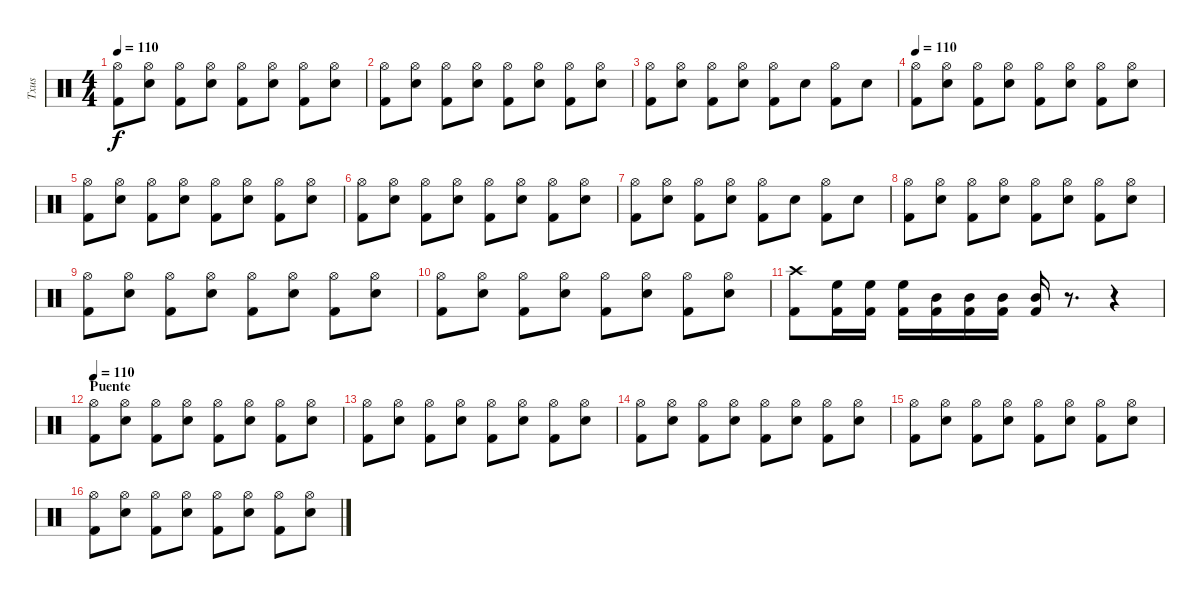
\track ("Txus" "Txus") {instrument percussion}
\staff {score}
\articulation defaults
\ts (4 4)
\tempo 110
\clef neutral
\ks c
("Hi-Hat (open)" "Kick (hit) 2").8{dy f} ("Hi-Hat (open)" "Snare (hit) 2").8 ("Hi-Hat (open)" "Kick (hit) 2").8 ("Hi-Hat (open)" "Snare (hit) 2").8 ("Hi-Hat (open)" "Kick (hit) 2").8 ("Hi-Hat (open)" "Snare (hit) 2").8 ("Hi-Hat (open)" "Kick (hit) 2").8 ("Hi-Hat (open)" "Snare (hit) 2").8 |
("Hi-Hat (open)" "Kick (hit) 2").8 ("Hi-Hat (open)" "Snare (hit) 2").8 ("Hi-Hat (open)" "Kick (hit) 2").8 ("Hi-Hat (open)" "Snare (hit) 2").8 ("Hi-Hat (open)" "Kick (hit) 2").8 ("Hi-Hat (open)" "Snare (hit) 2").8 ("Hi-Hat (open)" "Kick (hit) 2").8 ("Hi-Hat (open)" "Snare (hit) 2").8 |
("Hi-Hat (open)" "Kick (hit) 2").8 ("Hi-Hat (open)" "Snare (hit) 2").8 ("Hi-Hat (open)" "Kick (hit) 2").8 ("Hi-Hat (open)" "Snare (hit) 2").8 ("Hi-Hat (open)" "Kick (hit) 2").8 "Snare (hit) 2".8 ("Hi-Hat (open)" "Kick (hit) 2").8 "Snare (hit) 2".8 |
\tempo 110
("Hi-Hat (open)" "Kick (hit) 2").8 ("Hi-Hat (open)" "Snare (hit) 2").8 ("Hi-Hat (open)" "Kick (hit) 2").8 ("Hi-Hat (open)" "Snare (hit) 2").8 ("Hi-Hat (open)" "Kick (hit) 2").8 ("Hi-Hat (open)" "Snare (hit) 2").8 ("Hi-Hat (open)" "Kick (hit) 2").8 ("Hi-Hat (open)" "Snare (hit) 2").8 |
("Hi-Hat (open)" "Kick (hit) 2").8 ("Hi-Hat (open)" "Snare (hit) 2").8 ("Hi-Hat (open)" "Kick (hit) 2").8 ("Hi-Hat (open)" "Snare (hit) 2").8 ("Hi-Hat (open)" "Kick (hit) 2").8 ("Hi-Hat (open)" "Snare (hit) 2").8 ("Hi-Hat (open)" "Kick (hit) 2").8 ("Hi-Hat (open)" "Snare (hit) 2").8 |
("Hi-Hat (open)" "Kick (hit) 2").8 ("Hi-Hat (open)" "Snare (hit) 2").8 ("Hi-Hat (open)" "Kick (hit) 2").8 ("Hi-Hat (open)" "Snare (hit) 2").8 ("Hi-Hat (open)" "Kick (hit) 2").8 ("Hi-Hat (open)" "Snare (hit) 2").8 ("Hi-Hat (open)" "Kick (hit) 2").8 ("Hi-Hat (open)" "Snare (hit) 2").8 |
("Hi-Hat (open)" "Kick (hit) 2").8 ("Hi-Hat (open)" "Snare (hit) 2").8 ("Hi-Hat (open)" "Kick (hit) 2").8 ("Hi-Hat (open)" "Snare (hit) 2").8 ("Hi-Hat (open)" "Kick (hit) 2").8 "Snare (hit) 2".8 ("Hi-Hat (open)" "Kick (hit) 2").8 "Snare (hit) 2".8 |
("Hi-Hat (open)" "Kick (hit) 2").8 ("Hi-Hat (open)" "Snare (hit) 2").8 ("Hi-Hat (open)" "Kick (hit) 2").8 ("Hi-Hat (open)" "Snare (hit) 2").8 ("Hi-Hat (open)" "Kick (hit) 2").8 ("Hi-Hat (open)" "Snare (hit) 2").8 ("Hi-Hat (open)" "Kick (hit) 2").8 ("Hi-Hat (open)" "Snare (hit) 2").8 |
("Hi-Hat (open)" "Kick (hit) 2").8 ("Hi-Hat (open)" "Snare (hit) 2").8 ("Hi-Hat (open)" "Kick (hit) 2").8 ("Hi-Hat (open)" "Snare (hit) 2").8 ("Hi-Hat (open)" "Kick (hit) 2").8 ("Hi-Hat (open)" "Snare (hit) 2").8 ("Hi-Hat (open)" "Kick (hit) 2").8 ("Hi-Hat (open)" "Snare (hit) 2").8 |
("Hi-Hat (open)" "Kick (hit) 2").8 ("Hi-Hat (open)" "Snare (hit) 2").8 ("Hi-Hat (open)" "Kick (hit) 2").8 ("Hi-Hat (open)" "Snare (hit) 2").8 ("Hi-Hat (open)" "Kick (hit) 2").8 ("Hi-Hat (open)" "Snare (hit) 2").8 ("Hi-Hat (open)" "Kick (hit) 2").8 ("Hi-Hat (open)" "Snare (hit) 2").8 |
("Kick (hit) 2" "Crash high (hit)").8 ("High Floor Tom (hit)" "Kick (hit) 2").16 ("High Floor Tom (hit)" "Kick (hit) 2").16 ("High Floor Tom (hit)" "Kick (hit) 2").16 ("Mid Tom (hit)" "Kick (hit) 2").16 ("Mid Tom (hit)" "Kick (hit) 2").16 ("Mid Tom (hit)" "Kick (hit) 2").16 ("Mid Tom (hit)" "Kick (hit) 2").16 r.8{d} r.4 |
\section ("" "Puente")
\tempo 110
("Hi-Hat (open)" "Kick (hit) 2").8 ("Hi-Hat (open)" "Snare (hit) 2").8 ("Hi-Hat (open)" "Kick (hit) 2").8 ("Hi-Hat (open)" "Snare (hit) 2").8 ("Hi-Hat (open)" "Kick (hit) 2").8 ("Hi-Hat (open)" "Snare (hit) 2").8 ("Hi-Hat (open)" "Kick (hit) 2").8 ("Hi-Hat (open)" "Snare (hit) 2").8 |
("Hi-Hat (open)" "Kick (hit) 2").8 ("Hi-Hat (open)" "Snare (hit) 2").8 ("Hi-Hat (open)" "Kick (hit) 2").8 ("Hi-Hat (open)" "Snare (hit) 2").8 ("Hi-Hat (open)" "Kick (hit) 2").8 ("Hi-Hat (open)" "Snare (hit) 2").8 ("Hi-Hat (open)" "Kick (hit) 2").8 ("Hi-Hat (open)" "Snare (hit) 2").8 |
("Hi-Hat (open)" "Kick (hit) 2").8 ("Hi-Hat (open)" "Snare (hit) 2").8 ("Hi-Hat (open)" "Kick (hit) 2").8 ("Hi-Hat (open)" "Snare (hit) 2").8 ("Hi-Hat (open)" "Kick (hit) 2").8 ("Hi-Hat (open)" "Snare (hit) 2").8 ("Hi-Hat (open)" "Kick (hit) 2").8 ("Hi-Hat (open)" "Snare (hit) 2").8 |
("Hi-Hat (open)" "Kick (hit) 2").8 ("Hi-Hat (open)" "Snare (hit) 2").8 ("Hi-Hat (open)" "Kick (hit) 2").8 ("Hi-Hat (open)" "Snare (hit) 2").8 ("Hi-Hat (open)" "Kick (hit) 2").8 ("Hi-Hat (open)" "Snare (hit) 2").8 ("Hi-Hat (open)" "Kick (hit) 2").8 ("Hi-Hat (open)" "Snare (hit) 2").8 |
("Hi-Hat (open)" "Kick (hit) 2").8 ("Hi-Hat (open)" "Snare (hit) 2").8 ("Hi-Hat (open)" "Kick (hit) 2").8 ("Hi-Hat (open)" "Snare (hit) 2").8 ("Hi-Hat (open)" "Kick (hit) 2").8 ("Hi-Hat (open)" "Snare (hit) 2").8 ("Hi-Hat (open)" "Kick (hit) 2").8 ("Hi-Hat (open)" "Snare (hit) 2").8
